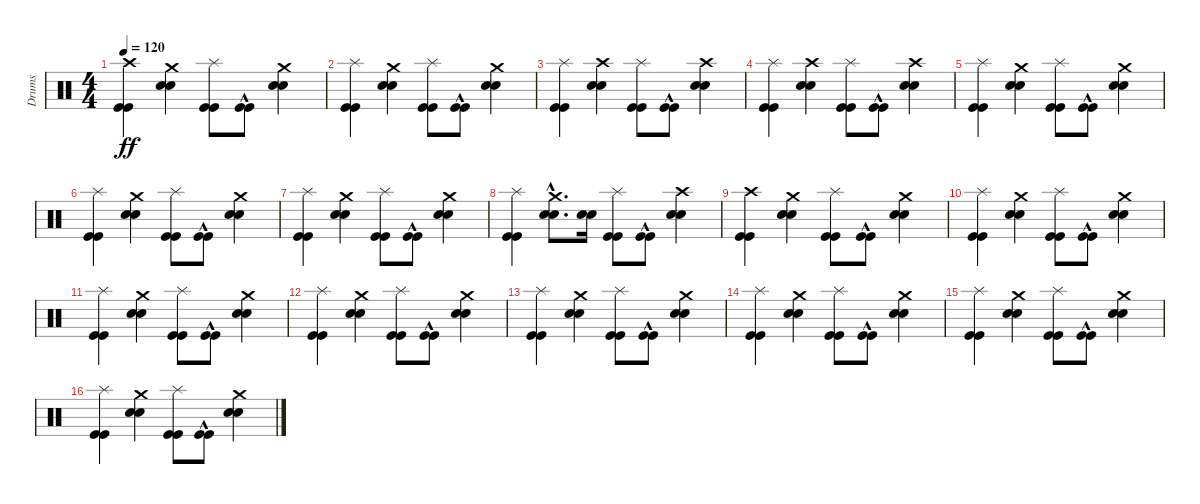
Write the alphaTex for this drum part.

\track ("Drums" "Drums") {instrument percussion}
\staff {score}
\articulation defaults
\ts (4 4)
\tempo 120
\clef neutral
\ks c
("Kick (hit)" "Kick (hit)" "Crash high (hit)").4{dy ff} ("Snare (hit) 2" "Snare (hit) 2" "Crash medium (hit)").4 ("Kick (hit)" "Kick (hit)" "Splash (hit)").8 ("Kick (hit)"{hac} "Kick (hit)"{hac}).8 ("Snare (hit) 2" "Snare (hit) 2" "Crash medium (hit)").4 |
("Kick (hit)" "Kick (hit)" "Splash (hit)").4 ("Snare (hit) 2" "Snare (hit) 2" "Crash medium (hit)").4 ("Kick (hit)" "Kick (hit)" "Splash (hit)").8 ("Kick (hit)"{hac} "Kick (hit)"{hac}).8 ("Snare (hit) 2" "Snare (hit) 2" "Crash medium (hit)").4 |
("Kick (hit)" "Kick (hit)" "Splash (hit)").4 ("Snare (hit) 2" "Snare (hit) 2" "Crash high (hit)").4 ("Kick (hit)" "Kick (hit)" "Splash (hit)").8 ("Kick (hit)"{hac} "Kick (hit)"{hac}).8 ("Snare (hit) 2" "Snare (hit) 2" "Crash high (hit)").4 |
("Kick (hit)" "Kick (hit)" "Splash (hit)").4 ("Snare (hit) 2" "Snare (hit) 2" "Crash high (hit)").4 ("Kick (hit)" "Kick (hit)" "Splash (hit)").8 ("Kick (hit)"{hac} "Kick (hit)"{hac}).8 ("Snare (hit) 2" "Snare (hit) 2" "Crash high (hit)").4 |
("Kick (hit)" "Kick (hit)" "Splash (hit)").4 ("Snare (hit) 2" "Snare (hit) 2" "Crash medium (hit)").4 ("Kick (hit)" "Kick (hit)" "Splash (hit)").8 ("Kick (hit)"{hac} "Kick (hit)"{hac}).8 ("Snare (hit) 2" "Snare (hit) 2" "Crash medium (hit)").4 |
("Kick (hit)" "Kick (hit)" "Splash (hit)").4 ("Snare (hit) 2" "Snare (hit) 2" "Crash medium (hit)").4 ("Kick (hit)" "Kick (hit)" "Splash (hit)").8 ("Kick (hit)"{hac} "Kick (hit)"{hac}).8 ("Snare (hit) 2" "Snare (hit) 2" "Crash medium (hit)").4 |
("Kick (hit)" "Kick (hit)" "Splash (hit)").4 ("Snare (hit) 2" "Snare (hit) 2" "Crash medium (hit)").4 ("Kick (hit)" "Kick (hit)" "Splash (hit)").8 ("Kick (hit)"{hac} "Kick (hit)"{hac}).8 ("Snare (hit) 2" "Snare (hit) 2" "Crash medium (hit)").4 |
("Kick (hit)" "Kick (hit)" "Splash (hit)").4 ("Snare (hit) 2"{hac} "Snare (hit) 2"{hac} "Crash medium (hit)").8{d} ("Snare (hit) 2" "Snare (hit) 2").16 ("Kick (hit)" "Kick (hit)" "Splash (hit)").8 ("Kick (hit)"{hac} "Kick (hit)"{hac}).8 ("Snare (hit) 2" "Snare (hit) 2" "Crash high (hit)").4 |
("Kick (hit)" "Kick (hit)" "Crash high (hit)").4 ("Snare (hit) 2" "Snare (hit) 2" "Crash medium (hit)").4 ("Kick (hit)" "Kick (hit)" "Splash (hit)").8 ("Kick (hit)"{hac} "Kick (hit)"{hac}).8 ("Snare (hit) 2" "Snare (hit) 2" "Crash medium (hit)").4 |
("Kick (hit)" "Kick (hit)" "Splash (hit)").4 ("Snare (hit) 2" "Snare (hit) 2" "Crash medium (hit)").4 ("Kick (hit)" "Kick (hit)" "Splash (hit)").8 ("Kick (hit)"{hac} "Kick (hit)"{hac}).8 ("Snare (hit) 2" "Snare (hit) 2" "Crash medium (hit)").4 |
("Kick (hit)" "Kick (hit)" "Splash (hit)").4 ("Snare (hit) 2" "Snare (hit) 2" "Crash medium (hit)").4 ("Kick (hit)" "Kick (hit)" "Splash (hit)").8 ("Kick (hit)"{hac} "Kick (hit)"{hac}).8 ("Snare (hit) 2" "Snare (hit) 2" "Crash medium (hit)").4 |
("Kick (hit)" "Kick (hit)" "Splash (hit)").4 ("Snare (hit) 2" "Snare (hit) 2" "Crash medium (hit)").4 ("Kick (hit)" "Kick (hit)" "Splash (hit)").8 ("Kick (hit)"{hac} "Kick (hit)"{hac}).8 ("Snare (hit) 2" "Snare (hit) 2" "Crash medium (hit)").4 |
("Kick (hit)" "Kick (hit)" "Splash (hit)").4 ("Snare (hit) 2" "Snare (hit) 2" "Crash medium (hit)").4 ("Kick (hit)" "Kick (hit)" "Splash (hit)").8 ("Kick (hit)"{hac} "Kick (hit)"{hac}).8 ("Snare (hit) 2" "Snare (hit) 2" "Crash medium (hit)").4 |
("Kick (hit)" "Kick (hit)" "Splash (hit)").4 ("Snare (hit) 2" "Snare (hit) 2" "Crash medium (hit)").4 ("Kick (hit)" "Kick (hit)" "Splash (hit)").8 ("Kick (hit)"{hac} "Kick (hit)"{hac}).8 ("Snare (hit) 2" "Snare (hit) 2" "Crash medium (hit)").4 |
("Kick (hit)" "Kick (hit)" "Splash (hit)").4 ("Snare (hit) 2" "Snare (hit) 2" "Crash medium (hit)").4 ("Kick (hit)" "Kick (hit)" "Splash (hit)").8 ("Kick (hit)"{hac} "Kick (hit)"{hac}).8 ("Snare (hit) 2" "Snare (hit) 2" "Crash medium (hit)").4 |
("Kick (hit)" "Kick (hit)" "Splash (hit)").4 ("Snare (hit) 2" "Snare (hit) 2" "Crash medium (hit)").4 ("Kick (hit)" "Kick (hit)" "Splash (hit)").8 ("Kick (hit)"{hac} "Kick (hit)"{hac}).8 ("Snare (hit) 2" "Snare (hit) 2" "Crash medium (hit)").4
